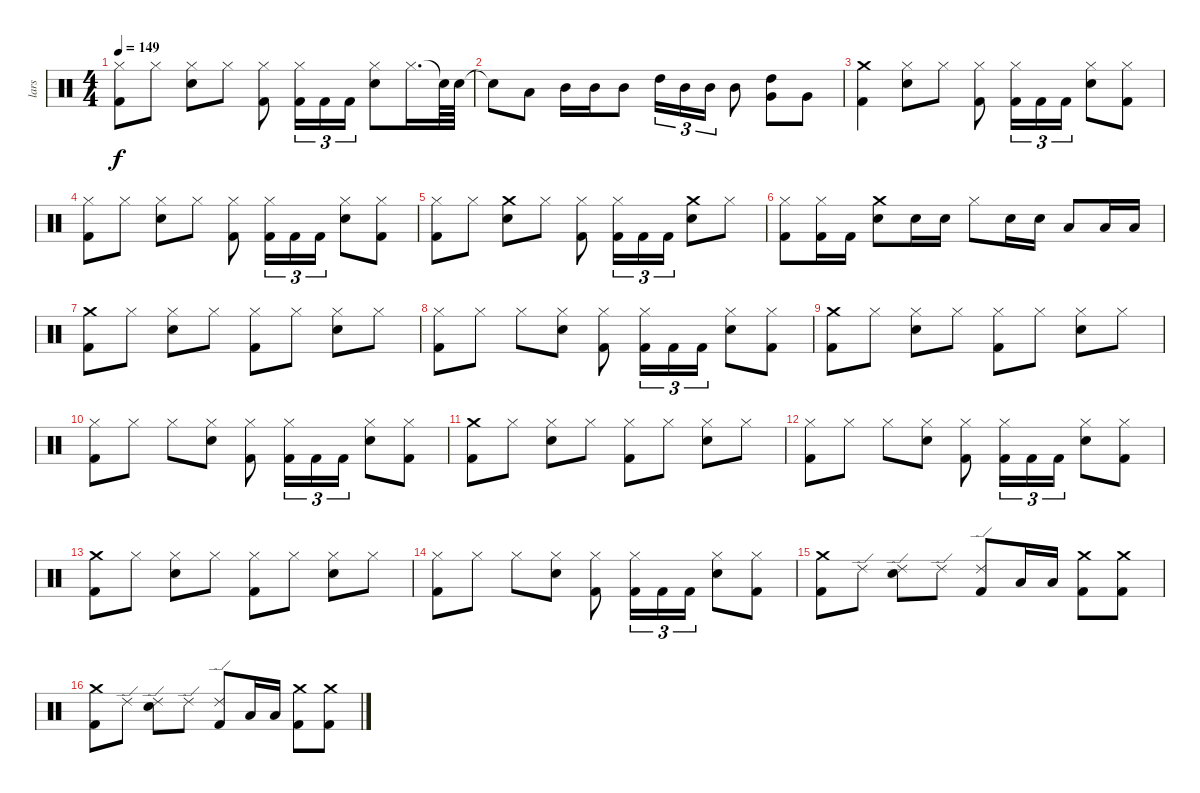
\track ("lars" "lars") {instrument percussion}
\staff {score}
\articulation defaults
\ts (4 4)
\tempo 149
\clef neutral
\ks c
("Kick (hit) 2" "Hi-Hat (closed)").8{dy f} "Hi-Hat (closed)".8 ("Snare (hit) 2" "Hi-Hat (closed)").8 "Hi-Hat (closed)".8 ("Kick (hit) 2" "Hi-Hat (closed)").8 ("Kick (hit) 2" "Hi-Hat (closed)").16{tu (3 2)} "Kick (hit) 2".16{tu (3 2)} "Kick (hit) 2".16{tu (3 2)} ("Snare (hit) 2" "Hi-Hat (closed)").8 "Hi-Hat (closed)".16{d} "Snare (hit)"{t}.64 "Snare (hit) 2".64 |
"Snare (hit)"{t}.8 "Low Tom (hit)".8 "Mid Tom (hit)".16 "Mid Tom (hit)".16 "Mid Tom (hit)".8 "High Tom (hit)".16{tu (3 2)} "Mid Tom (hit)".16{tu (3 2)} "Mid Tom (hit)".16{tu (3 2)} "Mid Tom (hit)".8 ("Very Low Tom (hit)" "High Tom (hit)").8 "Very Low Tom (hit)".8 |
("Crash medium (hit)" "Kick (hit) 2").4 ("Snare (hit) 2" "Hi-Hat (closed)").8 "Hi-Hat (closed)".8 ("Kick (hit) 2" "Hi-Hat (closed)").8 ("Kick (hit) 2" "Hi-Hat (closed)").16{tu (3 2)} "Kick (hit) 2".16{tu (3 2)} "Kick (hit) 2".16{tu (3 2)} ("Snare (hit) 2" "Hi-Hat (closed)").8 ("Hi-Hat (closed)" "Kick (hit) 2").8 |
("Kick (hit) 2" "Hi-Hat (closed)").8 "Hi-Hat (closed)".8 ("Snare (hit) 2" "Hi-Hat (closed)").8 "Hi-Hat (closed)".8 ("Kick (hit) 2" "Hi-Hat (closed)").8 ("Kick (hit) 2" "Hi-Hat (closed)").16{tu (3 2)} "Kick (hit) 2".16{tu (3 2)} "Kick (hit) 2".16{tu (3 2)} ("Snare (hit) 2" "Hi-Hat (closed)").8 ("Hi-Hat (closed)" "Kick (hit) 2").8 |
("Kick (hit) 2" "Hi-Hat (closed)").8 "Hi-Hat (closed)".8 ("Crash medium (hit)" "Snare (hit) 2").8 "Hi-Hat (closed)".8 ("Kick (hit) 2" "Hi-Hat (closed)").8 ("Kick (hit) 2" "Hi-Hat (closed)").16{tu (3 2)} "Kick (hit) 2".16{tu (3 2)} "Kick (hit) 2".16{tu (3 2)} ("Crash medium (hit)" "Snare (hit) 2").8 "Hi-Hat (closed)".8 |
("Kick (hit) 2" "Hi-Hat (closed)").8 ("Kick (hit) 2" "Hi-Hat (closed)").16 "Kick (hit) 2".16 ("Snare (hit) 2" "Crash medium (hit)").8 "Snare (hit) 2".16 "Snare (hit) 2".16 "Hi-Hat (closed)".8 "Snare (hit) 2".16 "Snare (hit) 2".16 "Low Tom (hit)".8 "Low Tom (hit)".16 "Low Tom (hit)".16 |
("Kick (hit) 2" "Crash medium (hit)").8 "Hi-Hat (closed)".8 ("Snare (hit) 2" "Hi-Hat (closed)").8 "Hi-Hat (closed)".8 ("Kick (hit) 2" "Hi-Hat (closed)").8 "Hi-Hat (closed)".8 ("Snare (hit) 2" "Hi-Hat (closed)").8 "Hi-Hat (closed)".8 |
("Kick (hit) 2" "Hi-Hat (closed)").8 "Hi-Hat (closed)".8 "Hi-Hat (closed)".8 ("Snare (hit) 2" "Hi-Hat (closed)").8 ("Kick (hit) 2" "Hi-Hat (closed)").8 ("Kick (hit) 2" "Hi-Hat (closed)").16{tu (3 2)} "Kick (hit) 2".16{tu (3 2)} "Kick (hit) 2".16{tu (3 2)} ("Snare (hit) 2" "Hi-Hat (closed)").8 ("Kick (hit) 2" "Hi-Hat (closed)").8 |
("Kick (hit) 2" "Crash medium (hit)").8 "Hi-Hat (closed)".8 ("Snare (hit) 2" "Hi-Hat (closed)").8 "Hi-Hat (closed)".8 ("Kick (hit) 2" "Hi-Hat (closed)").8 "Hi-Hat (closed)".8 ("Snare (hit) 2" "Hi-Hat (closed)").8 "Hi-Hat (closed)".8 |
("Kick (hit) 2" "Hi-Hat (closed)").8 "Hi-Hat (closed)".8 "Hi-Hat (closed)".8 ("Snare (hit) 2" "Hi-Hat (closed)").8 ("Kick (hit) 2" "Hi-Hat (closed)").8 ("Kick (hit) 2" "Hi-Hat (closed)").16{tu (3 2)} "Kick (hit) 2".16{tu (3 2)} "Kick (hit) 2".16{tu (3 2)} ("Snare (hit) 2" "Hi-Hat (closed)").8 ("Kick (hit) 2" "Hi-Hat (closed)").8 |
("Kick (hit) 2" "Crash medium (hit)").8 "Hi-Hat (closed)".8 ("Snare (hit) 2" "Hi-Hat (closed)").8 "Hi-Hat (closed)".8 ("Kick (hit) 2" "Hi-Hat (closed)").8 "Hi-Hat (closed)".8 ("Snare (hit) 2" "Hi-Hat (closed)").8 "Hi-Hat (closed)".8 |
("Kick (hit) 2" "Hi-Hat (closed)").8 "Hi-Hat (closed)".8 "Hi-Hat (closed)".8 ("Snare (hit) 2" "Hi-Hat (closed)").8 ("Kick (hit) 2" "Hi-Hat (closed)").8 ("Kick (hit) 2" "Hi-Hat (closed)").16{tu (3 2)} "Kick (hit) 2".16{tu (3 2)} "Kick (hit) 2".16{tu (3 2)} ("Snare (hit) 2" "Hi-Hat (closed)").8 ("Kick (hit) 2" "Hi-Hat (closed)").8 |
("Kick (hit) 2" "Crash medium (hit)").8 "Hi-Hat (closed)".8 ("Snare (hit) 2" "Hi-Hat (closed)").8 "Hi-Hat (closed)".8 ("Kick (hit) 2" "Hi-Hat (closed)").8 "Hi-Hat (closed)".8 ("Snare (hit) 2" "Hi-Hat (closed)").8 "Hi-Hat (closed)".8 |
("Kick (hit) 2" "Hi-Hat (closed)").8 "Hi-Hat (closed)".8 "Hi-Hat (closed)".8 ("Snare (hit) 2" "Hi-Hat (closed)").8 ("Kick (hit) 2" "Hi-Hat (closed)").8 ("Kick (hit) 2" "Hi-Hat (closed)").16{tu (3 2)} "Kick (hit) 2".16{tu (3 2)} "Kick (hit) 2".16{tu (3 2)} ("Snare (hit) 2" "Hi-Hat (closed)").8 ("Kick (hit) 2" "Hi-Hat (closed)").8 |
("Crash medium (hit)" "Kick (hit) 2").8 "Ride (edge) 2".8 ("Snare (hit) 2" "Ride (edge) 2").8 "Ride (edge) 2".8 ("Ride (edge) 2" "Kick (hit) 2").8 "Low Tom (hit)".16 "Low Tom (hit)".16 ("Crash medium (hit)" "Kick (hit) 2").8 ("Crash medium (hit)" "Kick (hit) 2").8 |
("Crash medium (hit)" "Kick (hit) 2").8 "Ride (edge) 2".8 ("Snare (hit) 2" "Ride (edge) 2").8 "Ride (edge) 2".8 ("Ride (edge) 2" "Kick (hit) 2").8 "Low Tom (hit)".16 "Low Tom (hit)".16 ("Crash medium (hit)" "Kick (hit) 2").8 ("Crash medium (hit)" "Kick (hit) 2").8
